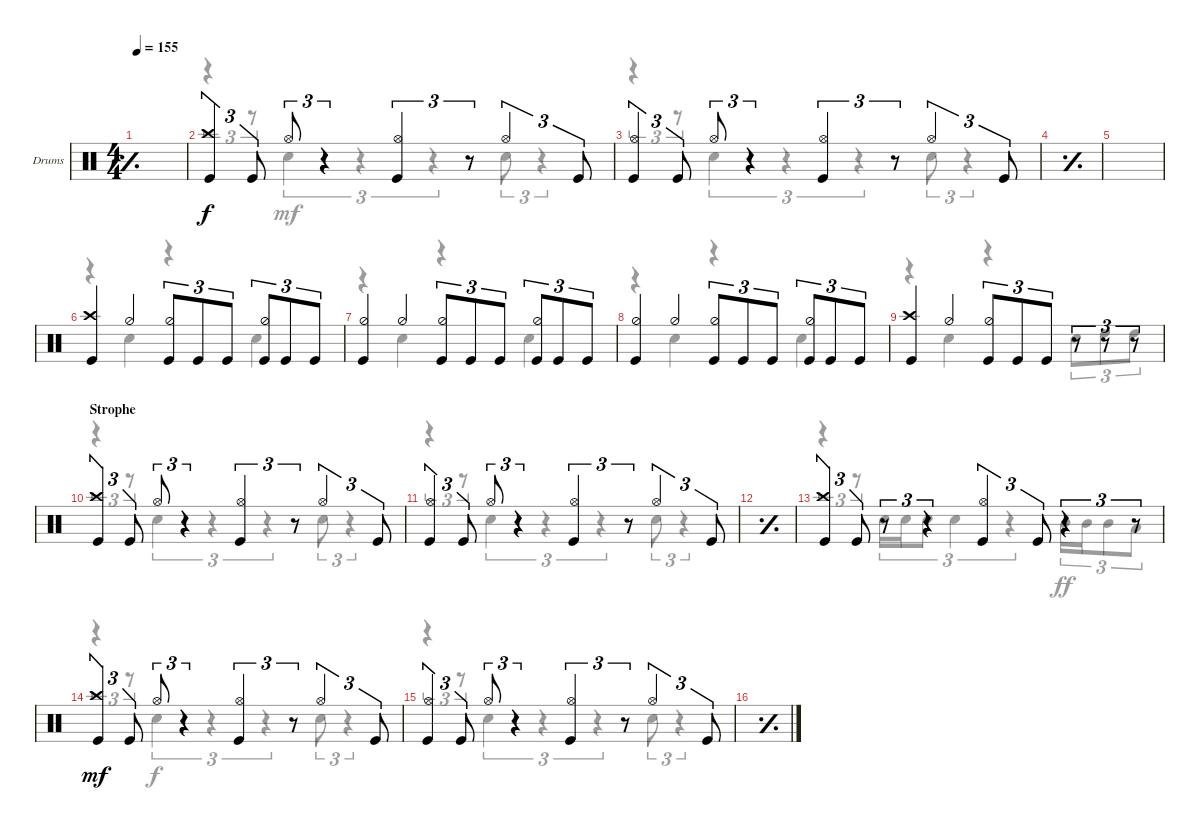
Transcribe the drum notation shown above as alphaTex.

\defaultSystemsLayout 4
\bracketExtendMode groupsimilarinstruments
\firstSystemTrackNameOrientation horizontal
\otherSystemsTrackNameOrientation horizontal
\track ("Drumkit" "Drums") {instrument percussion}
\staff {score}
\articulation defaults
\voice
\ts (4 4)
\tempo 155
\clef neutral
\simile simple
\ks c
|
("Kick (hit)" "Crash high (hit)").4{tu (3 2)} "Kick (hit)".8{tu (3 2)} "Hi-Hat (open)".8{tu (3 2)} r.4{tu (3 2)} ("Kick (hit)" "Hi-Hat (open)").4{tu (3 2)} r.8{tu (3 2)} "Hi-Hat (open)".4{tu (3 2)} "Kick (hit)".8{tu (3 2)} |
("Kick (hit)" "Hi-Hat (open)").4{tu (3 2)} "Kick (hit)".8{tu (3 2)} "Hi-Hat (open)".8{tu (3 2)} r.4{tu (3 2)} ("Kick (hit)" "Hi-Hat (open)").4{tu (3 2)} r.8{tu (3 2)} "Hi-Hat (open)".4{tu (3 2)} "Kick (hit)".8{tu (3 2)} |
\simile simple
|
|
\simile none
("Kick (hit)" "Crash high (hit)").4 "Hi-Hat (half)".4 ("Kick (hit)" "Hi-Hat (half)").8{tu (3 2)} "Kick (hit)".8{tu (3 2)} "Kick (hit)".8{tu (3 2)} ("Kick (hit)" "Hi-Hat (half)").8{tu (3 2)} "Kick (hit)".8{tu (3 2)} "Kick (hit)".8{tu (3 2)} |
("Kick (hit)" "Hi-Hat (half)").4 "Hi-Hat (half)".4 ("Kick (hit)" "Hi-Hat (half)").8{tu (3 2)} "Kick (hit)".8{tu (3 2)} "Kick (hit)".8{tu (3 2)} ("Kick (hit)" "Hi-Hat (half)").8{tu (3 2)} "Kick (hit)".8{tu (3 2)} "Kick (hit)".8{tu (3 2)} |
("Kick (hit)" "Hi-Hat (half)").4 "Hi-Hat (half)".4 ("Kick (hit)" "Hi-Hat (half)").8{tu (3 2)} "Kick (hit)".8{tu (3 2)} "Kick (hit)".8{tu (3 2)} ("Kick (hit)" "Hi-Hat (half)").8{tu (3 2)} "Kick (hit)".8{tu (3 2)} "Kick (hit)".8{tu (3 2)} |
("Kick (hit)" "Crash high (hit)").4 "Hi-Hat (half)".4 ("Kick (hit)" "Hi-Hat (half)").8{tu (3 2)} "Kick (hit)".8{tu (3 2)} "Kick (hit)".8{tu (3 2)} r.8{tu (3 2)} r.8{tu (3 2)} r.8{tu (3 2)} |
\section ("" "Strophe")
("Kick (hit)" "Crash high (hit)").4{tu (3 2)} "Kick (hit)".8{tu (3 2)} "Hi-Hat (open)".8{tu (3 2)} r.4{tu (3 2)} ("Kick (hit)" "Hi-Hat (open)").4{tu (3 2)} r.8{tu (3 2)} "Hi-Hat (open)".4{tu (3 2)} "Kick (hit)".8{tu (3 2)} |
("Kick (hit)" "Hi-Hat (open)").4{tu (3 2)} "Kick (hit)".8{tu (3 2)} "Hi-Hat (open)".8{tu (3 2)} r.4{tu (3 2)} ("Kick (hit)" "Hi-Hat (open)").4{tu (3 2)} r.8{tu (3 2)} "Hi-Hat (open)".4{tu (3 2)} "Kick (hit)".8{tu (3 2)} |
\simile simple
|
\simile none
("Kick (hit)" "Crash high (hit)").4{tu (3 2)} "Kick (hit)".8{tu (3 2)} r.8{tu (3 2)} r.4{tu (3 2)} ("Kick (hit)" "Hi-Hat (open)").4{tu (3 2)} "Kick (hit)".8{tu (3 2) dy f} r.4{tu (3 2)} r.8{tu (3 2)} |
("Kick (hit)" "Crash high (hit)").4{tu (3 2) dy mf} "Kick (hit)".8{tu (3 2)} "Hi-Hat (open)".8{tu (3 2)} r.4{tu (3 2)} ("Kick (hit)" "Hi-Hat (open)").4{tu (3 2)} r.8{tu (3 2)} "Hi-Hat (open)".4{tu (3 2)} "Kick (hit)".8{tu (3 2)} |
("Kick (hit)" "Hi-Hat (open)").4{tu (3 2)} "Kick (hit)".8{tu (3 2)} "Hi-Hat (open)".8{tu (3 2)} r.4{tu (3 2)} ("Kick (hit)" "Hi-Hat (open)").4{tu (3 2)} r.8{tu (3 2)} "Hi-Hat (open)".4{tu (3 2)} "Kick (hit)".8{tu (3 2)} |
\simile simple
\voice
\clef neutral
\ottava regular
\simile simple
\ks c
|
\simile none
r.4{tu (3 2)} r.8{tu (3 2)} "Snare (hit) 2".4{tu (3 2)} r.4{tu (3 2)} r.4{tu (3 2)} "Snare (hit) 2".8{tu (3 2)} r.4{tu (3 2)} |
r.4{tu (3 2)} r.8{tu (3 2)} "Snare (hit) 2".4{tu (3 2)} r.4{tu (3 2)} r.4{tu (3 2)} "Snare (hit) 2".8{tu (3 2)} r.4{tu (3 2)} |
\simile simple
|
|
\simile none
r.4 "Snare (hit) 2".4 r.4 "Snare (hit) 2".4 |
r.4 "Snare (hit) 2".4 r.4 "Snare (hit) 2".4 |
r.4 "Snare (hit) 2".4 r.4 "Snare (hit) 2".4 |
r.4 "Snare (hit) 2".4 r.4 "Snare (hit) 2".8{tu (3 2)} "High Tom (hit)".8{tu (3 2)} "High Tom (hit)".8{tu (3 2)} |
r.4{tu (3 2)} r.8{tu (3 2)} "Snare (hit) 2".4{tu (3 2)} r.4{tu (3 2)} r.4{tu (3 2)} "Snare (hit) 2".8{tu (3 2)} r.4{tu (3 2)} |
r.4{tu (3 2)} r.8{tu (3 2)} "Snare (hit) 2".4{tu (3 2)} r.4{tu (3 2)} r.4{tu (3 2)} "Snare (hit) 2".8{tu (3 2)} r.4{tu (3 2)} |
\simile simple
|
\simile none
r.4{tu (3 2)} r.8{tu (3 2)} "Snare (hit) 2".16{tu (3 2)} "Snare (hit) 2".16{tu (3 2)} "Snare (hit) 2".8{tu (3 2)} "Snare (hit) 2".4{tu (3 2)} r.4{tu (3 2)} "Mid Tom (hit)".16{tu (3 2) dy ff} "Mid Tom (hit)".16{tu (3 2)} "Mid Tom (hit)".8{tu (3 2)} "Low Tom (hit)".8{tu (3 2)} |
r.4{tu (3 2)} r.8{tu (3 2)} "Snare (hit) 2".4{tu (3 2) dy f} r.4{tu (3 2)} r.4{tu (3 2)} "Snare (hit) 2".8{tu (3 2)} r.4{tu (3 2)} |
r.4{tu (3 2)} r.8{tu (3 2)} "Snare (hit) 2".4{tu (3 2)} r.4{tu (3 2)} r.4{tu (3 2)} "Snare (hit) 2".8{tu (3 2)} r.4{tu (3 2)} |
\simile simple
